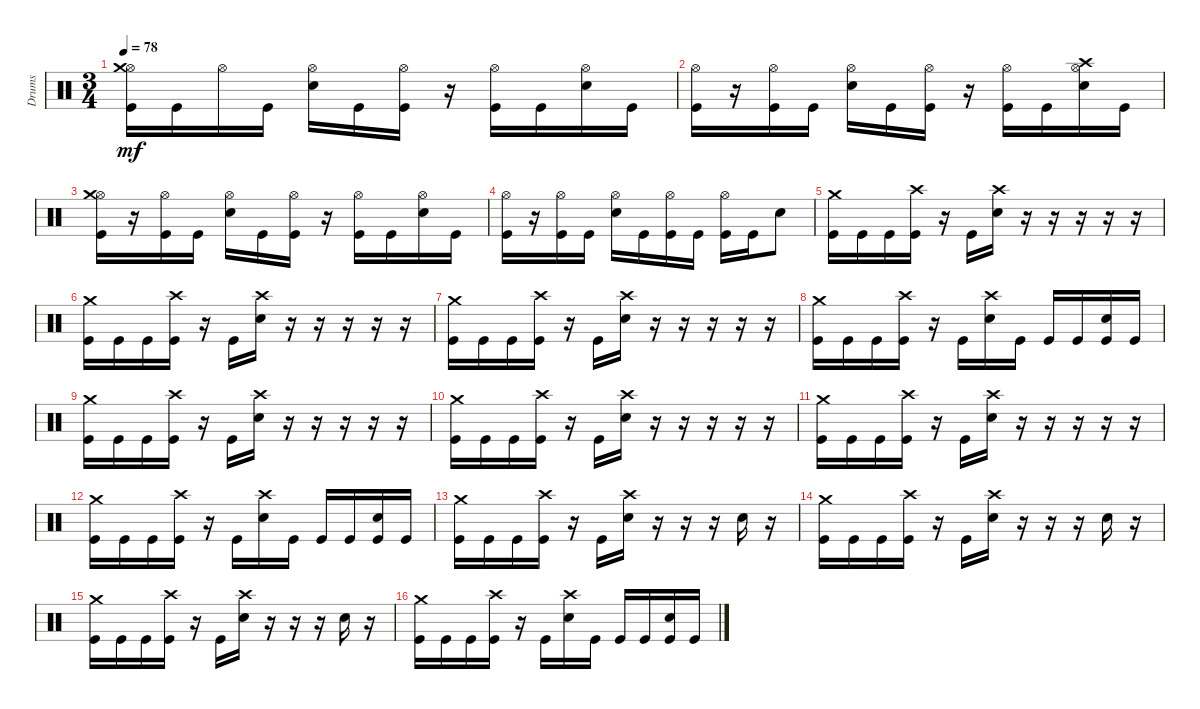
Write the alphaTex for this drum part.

\track ("Drums" "Drums") {instrument percussion}
\staff {score}
\articulation defaults
\ts (3 4)
\tempo 78
\clef neutral
\ks c
("Kick (hit)" "Hi-Hat (open)" "Crash medium (hit)").16{dy mf} "Kick (hit)".16 "Hi-Hat (open)".16 "Kick (hit)".16 ("Snare (hit) 2" "Hi-Hat (open)").16 "Kick (hit)".16 ("Kick (hit)" "Hi-Hat (open)").16 r.16 ("Kick (hit)" "Hi-Hat (open)").16 "Kick (hit)".16 ("Snare (hit) 2" "Hi-Hat (open)").16 "Kick (hit)".16 |
("Kick (hit)" "Hi-Hat (open)").16 r.16 ("Kick (hit)" "Hi-Hat (open)").16 "Kick (hit)".16 ("Snare (hit) 2" "Hi-Hat (open)").16 "Kick (hit)".16 ("Kick (hit)" "Hi-Hat (open)").16 r.16 ("Kick (hit)" "Hi-Hat (open)").16 "Kick (hit)".16 ("Snare (hit) 2" "Hi-Hat (open)" "Crash high (hit)").16 "Kick (hit)".16 |
("Kick (hit)" "Hi-Hat (open)" "Crash medium (hit)").16 r.16 ("Kick (hit)" "Hi-Hat (open)").16 "Kick (hit)".16 ("Snare (hit) 2" "Hi-Hat (open)").16 "Kick (hit)".16 ("Kick (hit)" "Hi-Hat (open)").16 r.16 ("Kick (hit)" "Hi-Hat (open)").16 "Kick (hit)".16 ("Snare (hit) 2" "Hi-Hat (open)").16 "Kick (hit)".16 |
("Kick (hit)" "Hi-Hat (open)").16 r.16 ("Kick (hit)" "Hi-Hat (open)").16 "Kick (hit)".16 ("Snare (hit) 2" "Hi-Hat (open)").16 "Kick (hit)".16 ("Kick (hit)" "Hi-Hat (open)").16 "Kick (hit)".16 ("Kick (hit)" "Hi-Hat (open)").16 "Kick (hit)".16 "Snare (hit) 2".8 |
("Kick (hit)" "Crash medium (hit)").16 "Kick (hit)".16 "Kick (hit)".16 ("Kick (hit)" "Crash high (hit)").16 r.16 "Kick (hit)".16 ("Snare (hit) 2" "Crash high (hit)").16 r.16 r.16 r.16 r.16 r.16 |
("Kick (hit)" "Crash medium (hit)").16 "Kick (hit)".16 "Kick (hit)".16 ("Kick (hit)" "Crash high (hit)").16 r.16 "Kick (hit)".16 ("Snare (hit) 2" "Crash high (hit)").16 r.16 r.16 r.16 r.16 r.16 |
("Kick (hit)" "Crash medium (hit)").16 "Kick (hit)".16 "Kick (hit)".16 ("Kick (hit)" "Crash high (hit)").16 r.16 "Kick (hit)".16 ("Snare (hit) 2" "Crash high (hit)").16 r.16 r.16 r.16 r.16 r.16 |
("Kick (hit)" "Crash medium (hit)").16 "Kick (hit)".16 "Kick (hit)".16 ("Kick (hit)" "Crash high (hit)").16 r.16 "Kick (hit)".16 ("Snare (hit) 2" "Crash high (hit)").16 "Kick (hit)".16 "Kick (hit)".16 "Kick (hit)".16 ("Kick (hit)" "Snare (hit) 2").16 "Kick (hit)".16 |
("Kick (hit)" "Crash medium (hit)").16 "Kick (hit)".16 "Kick (hit)".16 ("Kick (hit)" "Crash high (hit)").16 r.16 "Kick (hit)".16 ("Snare (hit) 2" "Crash high (hit)").16 r.16 r.16 r.16 r.16 r.16 |
("Kick (hit)" "Crash medium (hit)").16 "Kick (hit)".16 "Kick (hit)".16 ("Kick (hit)" "Crash high (hit)").16 r.16 "Kick (hit)".16 ("Snare (hit) 2" "Crash high (hit)").16 r.16 r.16 r.16 r.16 r.16 |
("Kick (hit)" "Crash medium (hit)").16 "Kick (hit)".16 "Kick (hit)".16 ("Kick (hit)" "Crash high (hit)").16 r.16 "Kick (hit)".16 ("Snare (hit) 2" "Crash high (hit)").16 r.16 r.16 r.16 r.16 r.16 |
("Kick (hit)" "Crash medium (hit)").16 "Kick (hit)".16 "Kick (hit)".16 ("Kick (hit)" "Crash high (hit)").16 r.16 "Kick (hit)".16 ("Snare (hit) 2" "Crash high (hit)").16 "Kick (hit)".16 "Kick (hit)".16 "Kick (hit)".16 ("Kick (hit)" "Snare (hit) 2").16 "Kick (hit)".16 |
("Kick (hit)" "Crash medium (hit)").16 "Kick (hit)".16 "Kick (hit)".16 ("Kick (hit)" "Crash high (hit)").16 r.16 "Kick (hit)".16 ("Snare (hit) 2" "Crash high (hit)").16 r.16 r.16 r.16 "Snare (hit) 2".16 r.16 |
("Kick (hit)" "Crash medium (hit)").16 "Kick (hit)".16 "Kick (hit)".16 ("Kick (hit)" "Crash high (hit)").16 r.16 "Kick (hit)".16 ("Snare (hit) 2" "Crash high (hit)").16 r.16 r.16 r.16 "Snare (hit) 2".16 r.16 |
("Kick (hit)" "Crash medium (hit)").16 "Kick (hit)".16 "Kick (hit)".16 ("Kick (hit)" "Crash high (hit)").16 r.16 "Kick (hit)".16 ("Snare (hit) 2" "Crash high (hit)").16 r.16 r.16 r.16 "Snare (hit) 2".16 r.16 |
("Kick (hit)" "Crash medium (hit)").16 "Kick (hit)".16 "Kick (hit)".16 ("Kick (hit)" "Crash high (hit)").16 r.16 "Kick (hit)".16 ("Snare (hit) 2" "Crash high (hit)").16 "Kick (hit)".16 "Kick (hit)".16 "Kick (hit)".16 ("Kick (hit)" "Snare (hit) 2").16 "Kick (hit)".16
